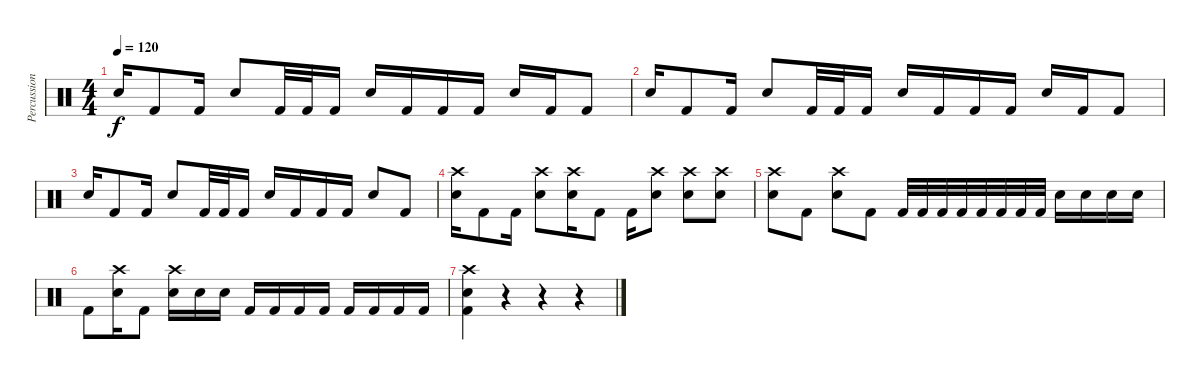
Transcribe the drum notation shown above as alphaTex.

\track ("Percussion" "Percussion") {instrument percussion}
\staff {score}
\articulation defaults
\ts (4 4)
\tempo 120
\clef neutral
\ks c "Snare (hit) 2".16{dy f} "Kick (hit) 2".8 "Kick (hit) 2".16 "Snare (hit) 2".8 "Kick (hit) 2".32 "Kick (hit) 2".32 "Kick (hit) 2".16 "Snare (hit) 2".16 "Kick (hit) 2".16 "Kick (hit) 2".16 "Kick (hit) 2".16 "Snare (hit) 2".16 "Kick (hit) 2".16 "Kick (hit) 2".8
|
"Snare (hit) 2".16 "Kick (hit) 2".8 "Kick (hit) 2".16 "Snare (hit) 2".8 "Kick (hit) 2".32 "Kick (hit) 2".32 "Kick (hit) 2".16 "Snare (hit) 2".16 "Kick (hit) 2".16 "Kick (hit) 2".16 "Kick (hit) 2".16 "Snare (hit) 2".16 "Kick (hit) 2".16 "Kick (hit) 2".8 |
"Snare (hit) 2".16 "Kick (hit) 2".8 "Kick (hit) 2".16 "Snare (hit) 2".8 "Kick (hit) 2".32 "Kick (hit) 2".32 "Kick (hit) 2".16 "Snare (hit) 2".16 "Kick (hit) 2".16 "Kick (hit) 2".16 "Kick (hit) 2".16 "Snare (hit) 2".8 "Kick (hit) 2".8 |
("Snare (hit) 2" "Crash high (hit)").16 "Kick (hit) 2".8 "Kick (hit) 2".16 ("Snare (hit) 2" "Crash high (hit)").8 ("Snare (hit) 2" "Crash high (hit)").16 "Kick (hit) 2".8 "Kick (hit) 2".16 ("Snare (hit) 2" "Crash high (hit)").8 ("Snare (hit) 2" "Crash high (hit)").8 ("Snare (hit) 2" "Crash high (hit)").8 |
("Snare (hit) 2" "Crash high (hit)").8 "Kick (hit) 2".8 ("Snare (hit) 2" "Crash high (hit)").8 "Kick (hit) 2".8 "Kick (hit) 2".32 "Kick (hit) 2".32 "Kick (hit) 2".32 "Kick (hit) 2".32 "Kick (hit) 2".32 "Kick (hit) 2".32 "Kick (hit) 2".32 "Kick (hit) 2".32 "Snare (hit) 2".16 "Snare (hit) 2".16 "Snare (hit) 2".16 "Snare (hit) 2".16 |
"Kick (hit) 2".8 ("Snare (hit) 2" "Crash high (hit)").16 "Kick (hit) 2".8 ("Snare (hit) 2" "Crash high (hit)").16 "Snare (hit) 2".16 "Snare (hit) 2".16 "Kick (hit) 2".16 "Kick (hit) 2".16 "Kick (hit) 2".16 "Kick (hit) 2".16 "Kick (hit) 2".16 "Kick (hit) 2".16 "Kick (hit) 2".16 "Kick (hit) 2".16 |
("Crash high (hit)" "Kick (hit) 2" "Snare (hit) 2").4 r.4 r.4 r.4
